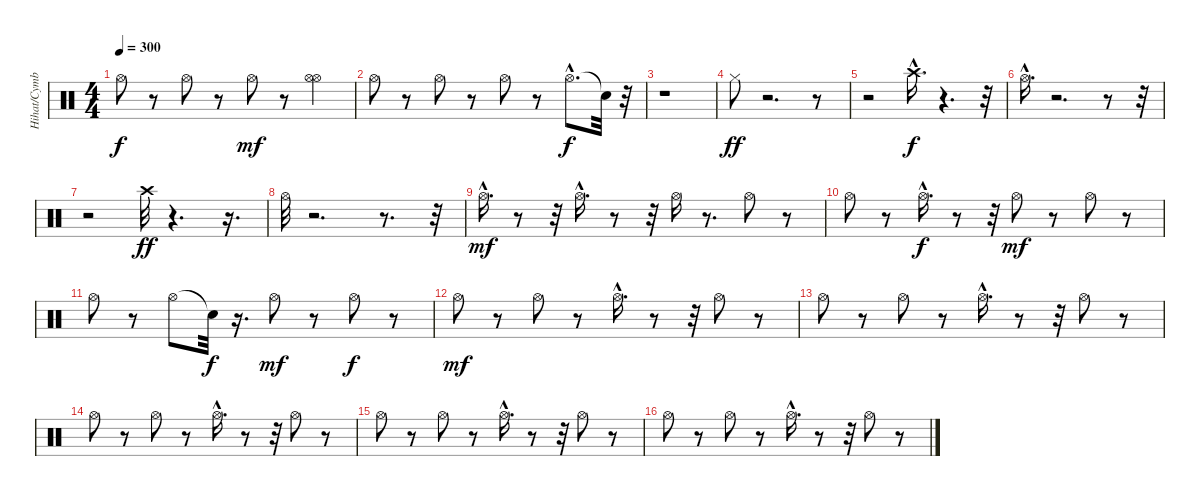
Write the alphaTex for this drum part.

\track ("Hihat/Cymbals/Tambourine" "Hihat/Cymb") {instrument percussion}
\staff {score}
\articulation defaults
\ts (4 4)
\tempo 300
\clef neutral
\ks c "Hi-Hat (open)".8{dy f}
r.8 "Hi-Hat (open)".8 r.8 "Hi-Hat (open)".8{dy mf} r.8 ("Hi-Hat (open)" "Hi-Hat (open)").4 |
"Hi-Hat (open)".8 r.8 "Hi-Hat (open)".8 r.8 "Hi-Hat (open)".8 r.8 "Hi-Hat (open)"{hac}.8{d dy f} "Snare (hit)"{t}.32 r.32 |
r.1 |
"Hi-Hat (closed)".8{dy ff} r.2{d} r.8 |
r.2 "Crash high (hit)"{hac}.16{d dy f} r.4{d} r.32 |
"Hi-Hat (open)"{hac}.16{d} r.2{d} r.8 r.32 |
r.2 "Crash high (hit)".32{dy ff} r.4{d} r.16{d} |
"Hi-Hat (open)".32 r.2{d} r.8{d} r.32 |
"Hi-Hat (open)"{hac}.16{d dy mf} r.8 r.32 "Hi-Hat (open)"{hac}.16{d} r.8 r.32 "Hi-Hat (open)".16 r.8{d} "Hi-Hat (open)".8 r.8 |
"Hi-Hat (open)".8 r.8 "Hi-Hat (open)"{hac}.16{d dy f} r.8 r.32 "Hi-Hat (open)".8{dy mf} r.8 "Hi-Hat (open)".8 r.8 |
"Hi-Hat (open)".8 r.8 "Hi-Hat (open)".8 "Snare (hit)"{t}.32{dy f} r.16{d} "Hi-Hat (open)".8{dy mf} r.8 "Hi-Hat (open)".8{dy f} r.8 |
"Hi-Hat (open)".8{dy mf} r.8 "Hi-Hat (open)".8 r.8 "Hi-Hat (open)"{hac}.16{d} r.8 r.32 "Hi-Hat (open)".8 r.8 |
"Hi-Hat (open)".8 r.8 "Hi-Hat (open)".8 r.8 "Hi-Hat (open)"{hac}.16{d} r.8 r.32 "Hi-Hat (open)".8 r.8 |
"Hi-Hat (open)".8 r.8 "Hi-Hat (open)".8 r.8 "Hi-Hat (open)"{hac}.16{d} r.8 r.32 "Hi-Hat (open)".8 r.8 |
"Hi-Hat (open)".8 r.8 "Hi-Hat (open)".8 r.8 "Hi-Hat (open)"{hac}.16{d} r.8 r.32 "Hi-Hat (open)".8 r.8 |
"Hi-Hat (open)".8 r.8 "Hi-Hat (open)".8 r.8 "Hi-Hat (open)"{hac}.16{d} r.8 r.32 "Hi-Hat (open)".8 r.8
